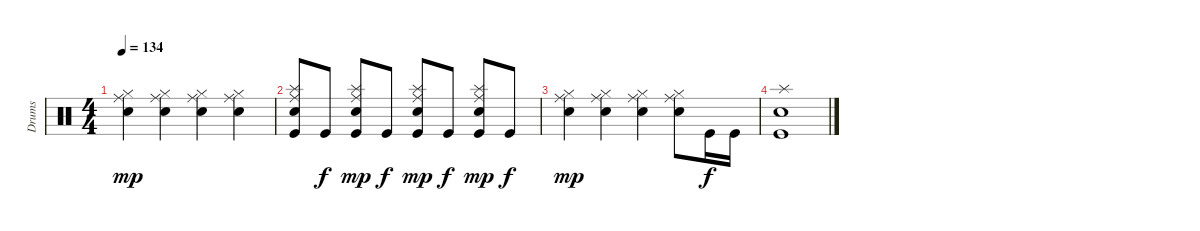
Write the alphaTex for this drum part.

\track ("Drums" "Drums") {instrument percussion}
\staff {score}
\articulation defaults
\ts (4 4)
\tempo 134
\clef neutral
\ks c
("Electric Snare (hit)" "Hi-Hat (closed)" "Ride (middle)").4{dy mp} ("Electric Snare (hit)" "Hi-Hat (closed)" "Ride (middle)").4 ("Electric Snare (hit)" "Hi-Hat (closed)" "Ride (middle)").4 ("Electric Snare (hit)" "Hi-Hat (closed)" "Ride (middle)").4 |
("Electric Snare (hit)" "Splash (hit)" "Kick (hit)" "Ride (middle)").8 "Kick (hit)".8{dy f} ("Electric Snare (hit)" "Splash (hit)" "Kick (hit)" "Ride (middle)").8{dy mp} "Kick (hit)".8{dy f} ("Electric Snare (hit)" "Splash (hit)" "Kick (hit)" "Ride (middle)").8{dy mp} "Kick (hit)".8{dy f} ("Electric Snare (hit)" "Splash (hit)" "Kick (hit)" "Ride (middle)").8{dy mp} "Kick (hit)".8{dy f} |
("Electric Snare (hit)" "Hi-Hat (closed)" "Ride (middle)").4{dy mp} ("Electric Snare (hit)" "Hi-Hat (closed)" "Ride (middle)").4 ("Electric Snare (hit)" "Hi-Hat (closed)" "Ride (middle)").4 ("Electric Snare (hit)" "Hi-Hat (closed)" "Ride (middle)").8 "Kick (hit)".16{dy f} "Kick (hit)".16 |
("Electric Snare (hit)" "Kick (hit)" "Splash (hit)").1
